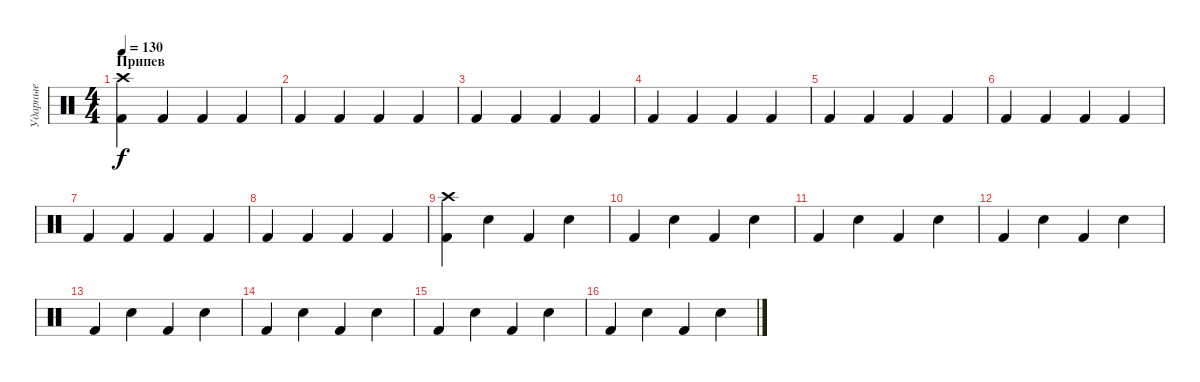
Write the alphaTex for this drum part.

\track ("Ударные" "Ударные") {instrument percussion}
\staff {score}
\articulation defaults
\ts (4 4)
\section ("" "Припев")
\tempo 130
\clef neutral
\ks c
("Kick (hit) 2" "Crash high (hit)").4{dy f} "Kick (hit) 2".4 "Kick (hit) 2".4 "Kick (hit) 2".4 |
"Kick (hit) 2".4 "Kick (hit) 2".4 "Kick (hit) 2".4 "Kick (hit) 2".4 |
"Kick (hit) 2".4 "Kick (hit) 2".4 "Kick (hit) 2".4 "Kick (hit) 2".4 |
"Kick (hit) 2".4 "Kick (hit) 2".4 "Kick (hit) 2".4 "Kick (hit) 2".4 |
"Kick (hit) 2".4 "Kick (hit) 2".4 "Kick (hit) 2".4 "Kick (hit) 2".4 |
"Kick (hit) 2".4 "Kick (hit) 2".4 "Kick (hit) 2".4 "Kick (hit) 2".4 |
"Kick (hit) 2".4 "Kick (hit) 2".4 "Kick (hit) 2".4 "Kick (hit) 2".4 |
"Kick (hit) 2".4 "Kick (hit) 2".4 "Kick (hit) 2".4 "Kick (hit) 2".4 |
("Kick (hit) 2" "Crash high (hit)").4 "Snare (hit) 2".4 "Kick (hit) 2".4 "Snare (hit) 2".4 |
"Kick (hit) 2".4 "Snare (hit) 2".4 "Kick (hit) 2".4 "Snare (hit) 2".4 |
"Kick (hit) 2".4 "Snare (hit) 2".4 "Kick (hit) 2".4 "Snare (hit) 2".4 |
"Kick (hit) 2".4 "Snare (hit) 2".4 "Kick (hit) 2".4 "Snare (hit) 2".4 |
"Kick (hit) 2".4 "Snare (hit) 2".4 "Kick (hit) 2".4 "Snare (hit) 2".4 |
"Kick (hit) 2".4 "Snare (hit) 2".4 "Kick (hit) 2".4 "Snare (hit) 2".4 |
"Kick (hit) 2".4 "Snare (hit) 2".4 "Kick (hit) 2".4 "Snare (hit) 2".4 |
"Kick (hit) 2".4 "Snare (hit) 2".4 "Kick (hit) 2".4 "Snare (hit) 2".4
